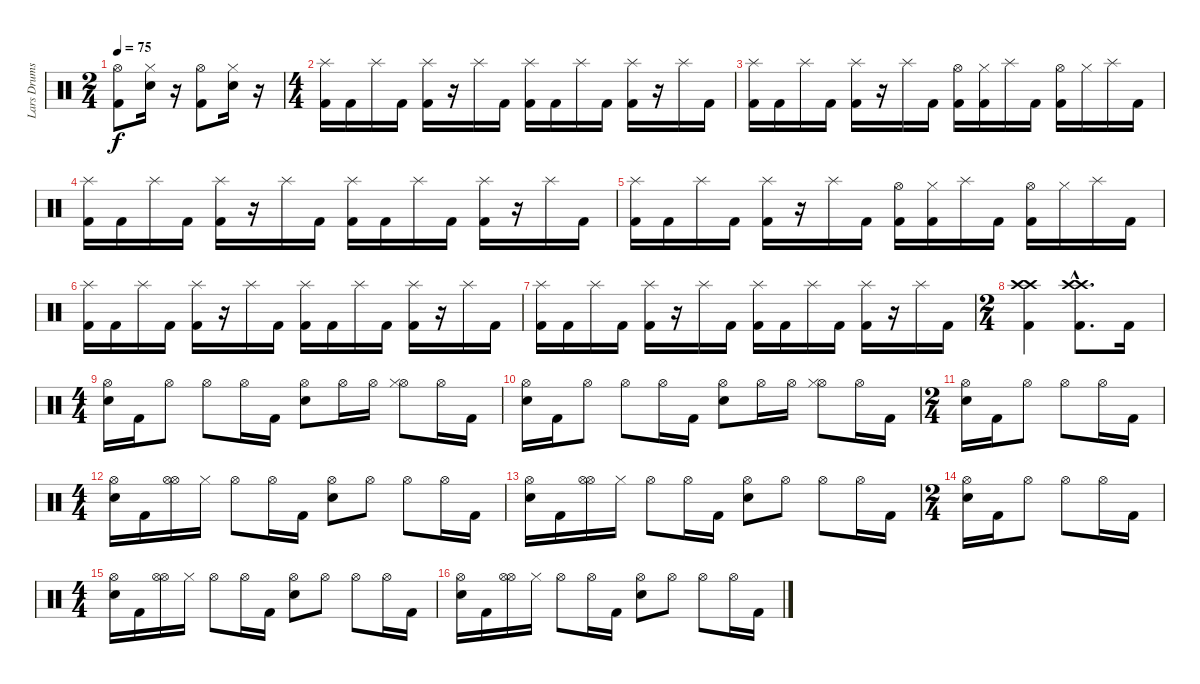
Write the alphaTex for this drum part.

\track ("Lars Drums" "Lars Drums") {instrument percussion}
\staff {score}
\articulation defaults
\ts (2 4)
\tempo 75
\clef neutral
\ks c
("Hi-Hat (open)" "Kick (hit) 2").8{dy f} ("Hi-Hat (closed)" "Snare (hit) 2").16 r.16 ("Hi-Hat (open)" "Kick (hit) 2").8 ("Hi-Hat (closed)" "Snare (hit) 2").16 r.16 |
\ts (4 4)
("Splash (hit)" "Kick (hit) 2").16 "Kick (hit) 2".16 "Splash (hit)".16 "Kick (hit) 2".16 ("Splash (hit)" "Kick (hit) 2").16 r.16 "Splash (hit)".16 "Kick (hit) 2".16 ("Splash (hit)" "Kick (hit) 2").16 "Kick (hit) 2".16 "Splash (hit)".16 "Kick (hit) 2".16 ("Splash (hit)" "Kick (hit) 2").16 r.16 "Splash (hit)".16 "Kick (hit) 2".16 |
("Splash (hit)" "Kick (hit) 2").16 "Kick (hit) 2".16 "Splash (hit)".16 "Kick (hit) 2".16 ("Splash (hit)" "Kick (hit) 2").16 r.16 "Splash (hit)".16 "Kick (hit) 2".16 ("Hi-Hat (open)" "Kick (hit) 2").16 ("Hi-Hat (closed)" "Kick (hit) 2").16 "Splash (hit)".16 "Kick (hit) 2".16 ("Hi-Hat (open)" "Kick (hit) 2").16 "Hi-Hat (closed)".16 "Splash (hit)".16 "Kick (hit) 2".16 |
("Splash (hit)" "Kick (hit) 2").16 "Kick (hit) 2".16 "Splash (hit)".16 "Kick (hit) 2".16 ("Splash (hit)" "Kick (hit) 2").16 r.16 "Splash (hit)".16 "Kick (hit) 2".16 ("Splash (hit)" "Kick (hit) 2").16 "Kick (hit) 2".16 "Splash (hit)".16 "Kick (hit) 2".16 ("Splash (hit)" "Kick (hit) 2").16 r.16 "Splash (hit)".16 "Kick (hit) 2".16 |
("Splash (hit)" "Kick (hit) 2").16 "Kick (hit) 2".16 "Splash (hit)".16 "Kick (hit) 2".16 ("Splash (hit)" "Kick (hit) 2").16 r.16 "Splash (hit)".16 "Kick (hit) 2".16 ("Hi-Hat (open)" "Kick (hit) 2").16 ("Hi-Hat (closed)" "Kick (hit) 2").16 "Splash (hit)".16 "Kick (hit) 2".16 ("Hi-Hat (open)" "Kick (hit) 2").16 "Hi-Hat (closed)".16 "Splash (hit)".16 "Kick (hit) 2".16 |
("Splash (hit)" "Kick (hit) 2").16 "Kick (hit) 2".16 "Splash (hit)".16 "Kick (hit) 2".16 ("Splash (hit)" "Kick (hit) 2").16 r.16 "Splash (hit)".16 "Kick (hit) 2".16 ("Splash (hit)" "Kick (hit) 2").16 "Kick (hit) 2".16 "Splash (hit)".16 "Kick (hit) 2".16 ("Splash (hit)" "Kick (hit) 2").16 r.16 "Splash (hit)".16 "Kick (hit) 2".16 |
("Splash (hit)" "Kick (hit) 2").16 "Kick (hit) 2".16 "Splash (hit)".16 "Kick (hit) 2".16 ("Splash (hit)" "Kick (hit) 2").16 r.16 "Splash (hit)".16 "Kick (hit) 2".16 ("Splash (hit)" "Kick (hit) 2").16 "Kick (hit) 2".16 "Splash (hit)".16 "Kick (hit) 2".16 ("Splash (hit)" "Kick (hit) 2").16 r.16 "Splash (hit)".16 "Kick (hit) 2".16 |
\ts (2 4)
("Crash high (hit)" "Crash high (hit)" "Kick (hit) 2").4 ("Crash high (hit)"{hac} "Crash high (hit)"{hac} "Kick (hit) 2"{hac}).8{d} "Kick (hit) 2".16 |
\ts (4 4)
("Hi-Hat (open)" "Snare (hit) 2").16 "Kick (hit) 2".16 "Hi-Hat (open)".8 "Hi-Hat (open)".8 "Hi-Hat (open)".16 "Kick (hit) 2".16 ("Hi-Hat (open)" "Snare (hit) 2").8 "Hi-Hat (open)".16 "Hi-Hat (open)".16 ("Hi-Hat (open)" "Hi-Hat (closed)").8 "Hi-Hat (open)".16 "Kick (hit) 2".16 |
("Hi-Hat (open)" "Snare (hit) 2").16 "Kick (hit) 2".16 "Hi-Hat (open)".8 "Hi-Hat (open)".8 "Hi-Hat (open)".16 "Kick (hit) 2".16 ("Hi-Hat (open)" "Snare (hit) 2").8 "Hi-Hat (open)".16 "Hi-Hat (open)".16 ("Hi-Hat (open)" "Hi-Hat (closed)").8 "Hi-Hat (open)".16 "Kick (hit) 2".16 |
\ts (2 4)
("Hi-Hat (open)" "Snare (hit) 2").16 "Kick (hit) 2".16 "Hi-Hat (open)".8 "Hi-Hat (open)".8 "Hi-Hat (open)".16 "Kick (hit) 2".16 |
\ts (4 4)
("Hi-Hat (open)" "Snare (hit) 2").16 "Kick (hit) 2".16 ("Hi-Hat (open)" "Hi-Hat (open)").16 "Hi-Hat (closed)".16 "Hi-Hat (open)".8 "Hi-Hat (open)".16 "Kick (hit) 2".16 ("Hi-Hat (open)" "Snare (hit) 2").8 "Hi-Hat (open)".8 "Hi-Hat (open)".8 "Hi-Hat (open)".16 "Kick (hit) 2".16 |
("Hi-Hat (open)" "Snare (hit) 2").16 "Kick (hit) 2".16 ("Hi-Hat (open)" "Hi-Hat (open)").16 "Hi-Hat (closed)".16 "Hi-Hat (open)".8 "Hi-Hat (open)".16 "Kick (hit) 2".16 ("Hi-Hat (open)" "Snare (hit) 2").8 "Hi-Hat (open)".8 "Hi-Hat (open)".8 "Hi-Hat (open)".16 "Kick (hit) 2".16 |
\ts (2 4)
("Hi-Hat (open)" "Snare (hit) 2").16 "Kick (hit) 2".16 "Hi-Hat (open)".8 "Hi-Hat (open)".8 "Hi-Hat (open)".16 "Kick (hit) 2".16 |
\ts (4 4)
("Hi-Hat (open)" "Snare (hit) 2").16 "Kick (hit) 2".16 ("Hi-Hat (open)" "Hi-Hat (open)").16 "Hi-Hat (closed)".16 "Hi-Hat (open)".8 "Hi-Hat (open)".16 "Kick (hit) 2".16 ("Hi-Hat (open)" "Snare (hit) 2").8 "Hi-Hat (open)".8 "Hi-Hat (open)".8 "Hi-Hat (open)".16 "Kick (hit) 2".16 |
("Hi-Hat (open)" "Snare (hit) 2").16 "Kick (hit) 2".16 ("Hi-Hat (open)" "Hi-Hat (open)").16 "Hi-Hat (closed)".16 "Hi-Hat (open)".8 "Hi-Hat (open)".16 "Kick (hit) 2".16 ("Hi-Hat (open)" "Snare (hit) 2").8 "Hi-Hat (open)".8 "Hi-Hat (open)".8 "Hi-Hat (open)".16 "Kick (hit) 2".16
